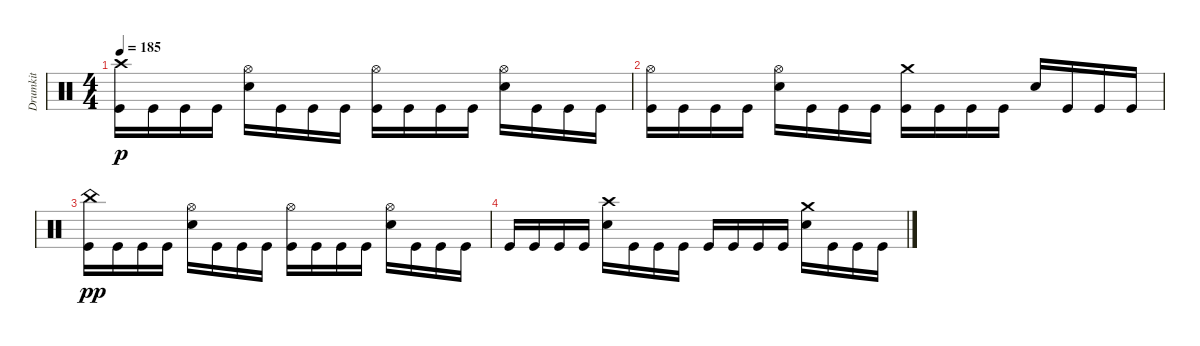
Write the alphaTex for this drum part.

\track ("Drumkit" "Drumkit") {instrument percussion}
\staff {score}
\articulation defaults
\ts (4 4)
\tempo 185
\clef neutral
\ks c
("Kick (hit)" "Crash high (hit)").16{dy p} "Kick (hit)".16 "Kick (hit)".16 "Kick (hit)".16 ("Snare (hit) 2" "Hi-Hat (open)").16 "Kick (hit)".16 "Kick (hit)".16 "Kick (hit)".16 ("Kick (hit)" "Hi-Hat (open)").16 "Kick (hit)".16 "Kick (hit)".16 "Kick (hit)".16 ("Snare (hit) 2" "Hi-Hat (open)").16 "Kick (hit)".16 "Kick (hit)".16 "Kick (hit)".16 |
("Kick (hit)" "Hi-Hat (open)").16 "Kick (hit)".16 "Kick (hit)".16 "Kick (hit)".16 ("Snare (hit) 2" "Hi-Hat (open)").16 "Kick (hit)".16 "Kick (hit)".16 "Kick (hit)".16 ("Kick (hit)" "Crash medium (hit)").16 "Kick (hit)".16 "Kick (hit)".16 "Kick (hit)".16 "Snare (hit) 2".16 "Kick (hit)".16 "Kick (hit)".16 "Kick (hit)".16 |
("Kick (hit)" "China (hit)").16{dy pp} "Kick (hit)".16 "Kick (hit)".16 "Kick (hit)".16 ("Snare (hit) 2" "Hi-Hat (open)").16 "Kick (hit)".16 "Kick (hit)".16 "Kick (hit)".16 ("Kick (hit)" "Hi-Hat (open)").16 "Kick (hit)".16 "Kick (hit)".16 "Kick (hit)".16 ("Snare (hit) 2" "Hi-Hat (open)").16 "Kick (hit)".16 "Kick (hit)".16 "Kick (hit)".16 |
"Kick (hit)".16 "Kick (hit)".16 "Kick (hit)".16 "Kick (hit)".16 ("Snare (hit) 2" "Crash high (hit)").16 "Kick (hit)".16 "Kick (hit)".16 "Kick (hit)".16 "Kick (hit)".16 "Kick (hit)".16 "Kick (hit)".16 "Kick (hit)".16 ("Snare (hit) 2" "Crash medium (hit)").16 "Kick (hit)".16 "Kick (hit)".16 "Kick (hit)".16
